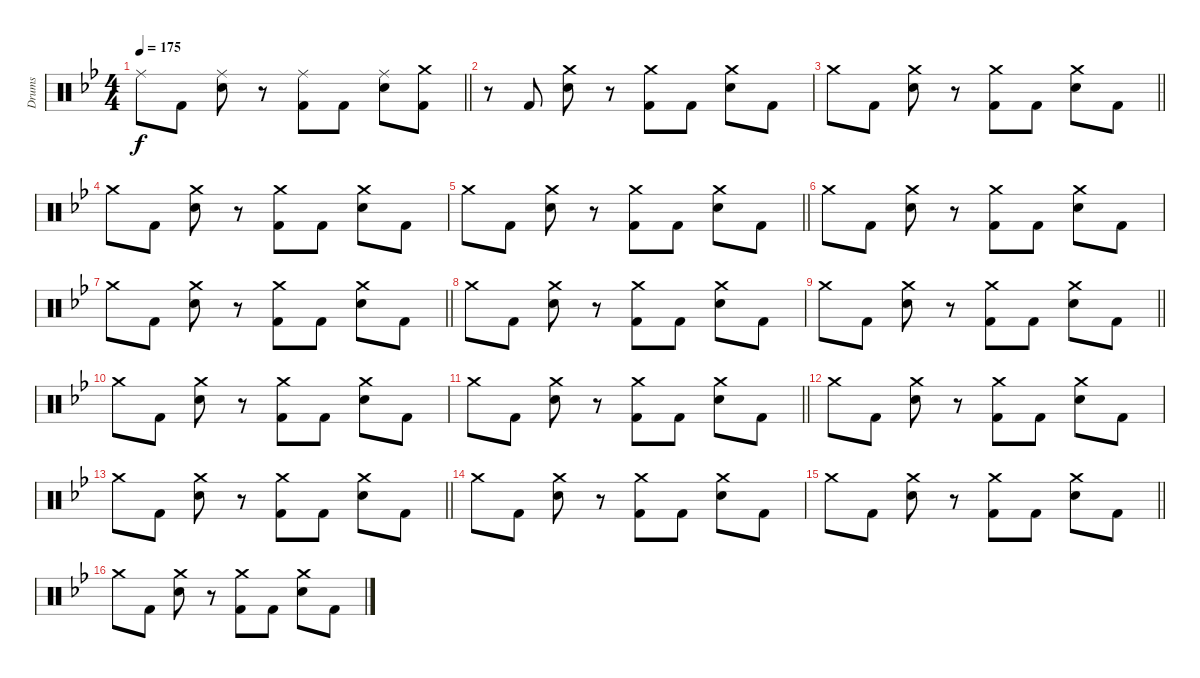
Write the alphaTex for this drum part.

\track ("Drums" "Drums") {instrument percussion}
\staff {score}
\articulation defaults
\ts (4 4)
\tempo 175
\clef neutral
\barLineRight lightlight
\ks bb "Ride (middle)".8{dy f} "Kick (hit) 2".8
("Ride (middle)" "Electric Snare (hit)").8 r.8 ("Ride (middle)" "Kick (hit) 2").8 "Kick (hit) 2".8 ("Ride (middle)" "Electric Snare (hit)").8 ("Crash medium (hit)" "Kick (hit) 2").8 |
r.8 "Kick (hit) 2".8 ("Crash medium (hit)" "Electric Snare (hit)").8 r.8 ("Crash medium (hit)" "Kick (hit) 2").8 "Kick (hit) 2".8 ("Crash medium (hit)" "Electric Snare (hit)").8 "Kick (hit) 2".8 |
\barLineRight lightlight "Crash medium (hit)".8 "Kick (hit) 2".8
("Crash medium (hit)" "Electric Snare (hit)").8 r.8 ("Crash medium (hit)" "Kick (hit) 2").8 "Kick (hit) 2".8 ("Crash medium (hit)" "Electric Snare (hit)").8 "Kick (hit) 2".8 |
"Crash medium (hit)".8 "Kick (hit) 2".8 ("Crash medium (hit)" "Electric Snare (hit)").8 r.8 ("Crash medium (hit)" "Kick (hit) 2").8 "Kick (hit) 2".8 ("Crash medium (hit)" "Electric Snare (hit)").8 "Kick (hit) 2".8 |
\barLineRight lightlight "Crash medium (hit)".8 "Kick (hit) 2".8
("Crash medium (hit)" "Electric Snare (hit)").8 r.8 ("Crash medium (hit)" "Kick (hit) 2").8 "Kick (hit) 2".8 ("Crash medium (hit)" "Electric Snare (hit)").8 "Kick (hit) 2".8 |
"Crash medium (hit)".8 "Kick (hit) 2".8 ("Crash medium (hit)" "Electric Snare (hit)").8 r.8 ("Crash medium (hit)" "Kick (hit) 2").8 "Kick (hit) 2".8 ("Crash medium (hit)" "Electric Snare (hit)").8 "Kick (hit) 2".8 |
\barLineRight lightlight "Crash medium (hit)".8 "Kick (hit) 2".8
("Crash medium (hit)" "Electric Snare (hit)").8 r.8 ("Crash medium (hit)" "Kick (hit) 2").8 "Kick (hit) 2".8 ("Crash medium (hit)" "Electric Snare (hit)").8 "Kick (hit) 2".8 |
"Crash medium (hit)".8 "Kick (hit) 2".8 ("Crash medium (hit)" "Electric Snare (hit)").8 r.8 ("Crash medium (hit)" "Kick (hit) 2").8 "Kick (hit) 2".8 ("Crash medium (hit)" "Electric Snare (hit)").8 "Kick (hit) 2".8 |
\barLineRight lightlight "Crash medium (hit)".8 "Kick (hit) 2".8
("Crash medium (hit)" "Electric Snare (hit)").8 r.8 ("Crash medium (hit)" "Kick (hit) 2").8 "Kick (hit) 2".8 ("Crash medium (hit)" "Electric Snare (hit)").8 "Kick (hit) 2".8 |
"Crash medium (hit)".8 "Kick (hit) 2".8 ("Crash medium (hit)" "Electric Snare (hit)").8 r.8 ("Crash medium (hit)" "Kick (hit) 2").8 "Kick (hit) 2".8 ("Crash medium (hit)" "Electric Snare (hit)").8 "Kick (hit) 2".8 |
\barLineRight lightlight "Crash medium (hit)".8 "Kick (hit) 2".8
("Crash medium (hit)" "Electric Snare (hit)").8 r.8 ("Crash medium (hit)" "Kick (hit) 2").8 "Kick (hit) 2".8 ("Crash medium (hit)" "Electric Snare (hit)").8 "Kick (hit) 2".8 |
"Crash medium (hit)".8 "Kick (hit) 2".8 ("Crash medium (hit)" "Electric Snare (hit)").8 r.8 ("Crash medium (hit)" "Kick (hit) 2").8 "Kick (hit) 2".8 ("Crash medium (hit)" "Electric Snare (hit)").8 "Kick (hit) 2".8 |
\barLineRight lightlight "Crash medium (hit)".8 "Kick (hit) 2".8
("Crash medium (hit)" "Electric Snare (hit)").8 r.8 ("Crash medium (hit)" "Kick (hit) 2").8 "Kick (hit) 2".8 ("Crash medium (hit)" "Electric Snare (hit)").8 "Kick (hit) 2".8 |
"Crash medium (hit)".8 "Kick (hit) 2".8 ("Crash medium (hit)" "Electric Snare (hit)").8 r.8 ("Crash medium (hit)" "Kick (hit) 2").8 "Kick (hit) 2".8 ("Crash medium (hit)" "Electric Snare (hit)").8 "Kick (hit) 2".8 |
\barLineRight lightlight "Crash medium (hit)".8 "Kick (hit) 2".8
("Crash medium (hit)" "Electric Snare (hit)").8 r.8 ("Crash medium (hit)" "Kick (hit) 2").8 "Kick (hit) 2".8 ("Crash medium (hit)" "Electric Snare (hit)").8 "Kick (hit) 2".8 |
"Crash medium (hit)".8 "Kick (hit) 2".8 ("Crash medium (hit)" "Electric Snare (hit)").8 r.8 ("Crash medium (hit)" "Kick (hit) 2").8 "Kick (hit) 2".8 ("Crash medium (hit)" "Electric Snare (hit)").8 "Kick (hit) 2".8
